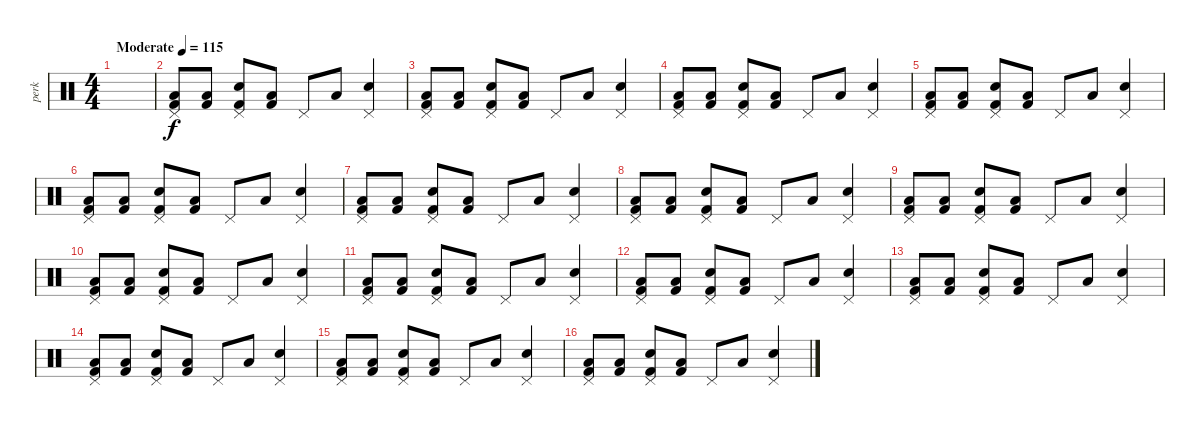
\track ("perk" "perk") {instrument percussion}
\staff {score}
\articulation defaults
\ts (4 4)
\tempo (115 "Moderate")
\clef neutral
\ks c
|
("Pedal Hi-Hat (hit)" "Low Floor Tom (hit)" "Kick (hit) 2").8 ("Low Floor Tom (hit)" "Kick (hit) 2").8 ("Pedal Hi-Hat (hit)" "Snare (hit) 2" "Kick (hit) 2").8 ("Low Floor Tom (hit)" "Kick (hit) 2").8 "Pedal Hi-Hat (hit)".8 "Low Floor Tom (hit)".8 ("Pedal Hi-Hat (hit)" "Snare (hit) 2").4 |
("Pedal Hi-Hat (hit)" "Low Floor Tom (hit)" "Kick (hit) 2").8 ("Low Floor Tom (hit)" "Kick (hit) 2").8 ("Pedal Hi-Hat (hit)" "Snare (hit) 2" "Kick (hit) 2").8 ("Low Floor Tom (hit)" "Kick (hit) 2").8 "Pedal Hi-Hat (hit)".8 "Low Floor Tom (hit)".8 ("Pedal Hi-Hat (hit)" "Snare (hit) 2").4 |
("Pedal Hi-Hat (hit)" "Low Floor Tom (hit)" "Kick (hit) 2").8 ("Low Floor Tom (hit)" "Kick (hit) 2").8 ("Pedal Hi-Hat (hit)" "Snare (hit) 2" "Kick (hit) 2").8 ("Low Floor Tom (hit)" "Kick (hit) 2").8 "Pedal Hi-Hat (hit)".8 "Low Floor Tom (hit)".8 ("Pedal Hi-Hat (hit)" "Snare (hit) 2").4 |
("Pedal Hi-Hat (hit)" "Low Floor Tom (hit)" "Kick (hit) 2").8 ("Low Floor Tom (hit)" "Kick (hit) 2").8 ("Pedal Hi-Hat (hit)" "Snare (hit) 2" "Kick (hit) 2").8 ("Low Floor Tom (hit)" "Kick (hit) 2").8 "Pedal Hi-Hat (hit)".8 "Low Floor Tom (hit)".8 ("Pedal Hi-Hat (hit)" "Snare (hit) 2").4 |
("Pedal Hi-Hat (hit)" "Low Floor Tom (hit)" "Kick (hit) 2").8 ("Low Floor Tom (hit)" "Kick (hit) 2").8 ("Pedal Hi-Hat (hit)" "Snare (hit) 2" "Kick (hit) 2").8 ("Low Floor Tom (hit)" "Kick (hit) 2").8 "Pedal Hi-Hat (hit)".8 "Low Floor Tom (hit)".8 ("Pedal Hi-Hat (hit)" "Snare (hit) 2").4 |
("Pedal Hi-Hat (hit)" "Low Floor Tom (hit)" "Kick (hit) 2").8 ("Low Floor Tom (hit)" "Kick (hit) 2").8 ("Pedal Hi-Hat (hit)" "Snare (hit) 2" "Kick (hit) 2").8 ("Low Floor Tom (hit)" "Kick (hit) 2").8 "Pedal Hi-Hat (hit)".8 "Low Floor Tom (hit)".8 ("Pedal Hi-Hat (hit)" "Snare (hit) 2").4 |
("Pedal Hi-Hat (hit)" "Low Floor Tom (hit)" "Kick (hit) 2").8 ("Low Floor Tom (hit)" "Kick (hit) 2").8 ("Pedal Hi-Hat (hit)" "Snare (hit) 2" "Kick (hit) 2").8 ("Low Floor Tom (hit)" "Kick (hit) 2").8 "Pedal Hi-Hat (hit)".8 "Low Floor Tom (hit)".8 ("Pedal Hi-Hat (hit)" "Snare (hit) 2").4 |
("Pedal Hi-Hat (hit)" "Low Floor Tom (hit)" "Kick (hit) 2").8 ("Low Floor Tom (hit)" "Kick (hit) 2").8 ("Pedal Hi-Hat (hit)" "Snare (hit) 2" "Kick (hit) 2").8 ("Low Floor Tom (hit)" "Kick (hit) 2").8 "Pedal Hi-Hat (hit)".8 "Low Floor Tom (hit)".8 ("Pedal Hi-Hat (hit)" "Snare (hit) 2").4 |
("Pedal Hi-Hat (hit)" "Low Floor Tom (hit)" "Kick (hit) 2").8 ("Low Floor Tom (hit)" "Kick (hit) 2").8 ("Pedal Hi-Hat (hit)" "Snare (hit) 2" "Kick (hit) 2").8 ("Low Floor Tom (hit)" "Kick (hit) 2").8 "Pedal Hi-Hat (hit)".8 "Low Floor Tom (hit)".8 ("Pedal Hi-Hat (hit)" "Snare (hit) 2").4 |
("Pedal Hi-Hat (hit)" "Low Floor Tom (hit)" "Kick (hit) 2").8 ("Low Floor Tom (hit)" "Kick (hit) 2").8 ("Pedal Hi-Hat (hit)" "Snare (hit) 2" "Kick (hit) 2").8 ("Low Floor Tom (hit)" "Kick (hit) 2").8 "Pedal Hi-Hat (hit)".8 "Low Floor Tom (hit)".8 ("Pedal Hi-Hat (hit)" "Snare (hit) 2").4 |
("Pedal Hi-Hat (hit)" "Low Floor Tom (hit)" "Kick (hit) 2").8 ("Low Floor Tom (hit)" "Kick (hit) 2").8 ("Pedal Hi-Hat (hit)" "Snare (hit) 2" "Kick (hit) 2").8 ("Low Floor Tom (hit)" "Kick (hit) 2").8 "Pedal Hi-Hat (hit)".8 "Low Floor Tom (hit)".8 ("Pedal Hi-Hat (hit)" "Snare (hit) 2").4 |
("Pedal Hi-Hat (hit)" "Low Floor Tom (hit)" "Kick (hit) 2").8 ("Low Floor Tom (hit)" "Kick (hit) 2").8 ("Pedal Hi-Hat (hit)" "Snare (hit) 2" "Kick (hit) 2").8 ("Low Floor Tom (hit)" "Kick (hit) 2").8 "Pedal Hi-Hat (hit)".8 "Low Floor Tom (hit)".8 ("Pedal Hi-Hat (hit)" "Snare (hit) 2").4 |
("Pedal Hi-Hat (hit)" "Low Floor Tom (hit)" "Kick (hit) 2").8 ("Low Floor Tom (hit)" "Kick (hit) 2").8 ("Pedal Hi-Hat (hit)" "Snare (hit) 2" "Kick (hit) 2").8 ("Low Floor Tom (hit)" "Kick (hit) 2").8 "Pedal Hi-Hat (hit)".8 "Low Floor Tom (hit)".8 ("Pedal Hi-Hat (hit)" "Snare (hit) 2").4 |
("Pedal Hi-Hat (hit)" "Low Floor Tom (hit)" "Kick (hit) 2").8 ("Low Floor Tom (hit)" "Kick (hit) 2").8 ("Pedal Hi-Hat (hit)" "Snare (hit) 2" "Kick (hit) 2").8 ("Low Floor Tom (hit)" "Kick (hit) 2").8 "Pedal Hi-Hat (hit)".8 "Low Floor Tom (hit)".8 ("Pedal Hi-Hat (hit)" "Snare (hit) 2").4 |
("Pedal Hi-Hat (hit)" "Low Floor Tom (hit)" "Kick (hit) 2").8 ("Low Floor Tom (hit)" "Kick (hit) 2").8 ("Pedal Hi-Hat (hit)" "Snare (hit) 2" "Kick (hit) 2").8 ("Low Floor Tom (hit)" "Kick (hit) 2").8 "Pedal Hi-Hat (hit)".8 "Low Floor Tom (hit)".8 ("Pedal Hi-Hat (hit)" "Snare (hit) 2").4
